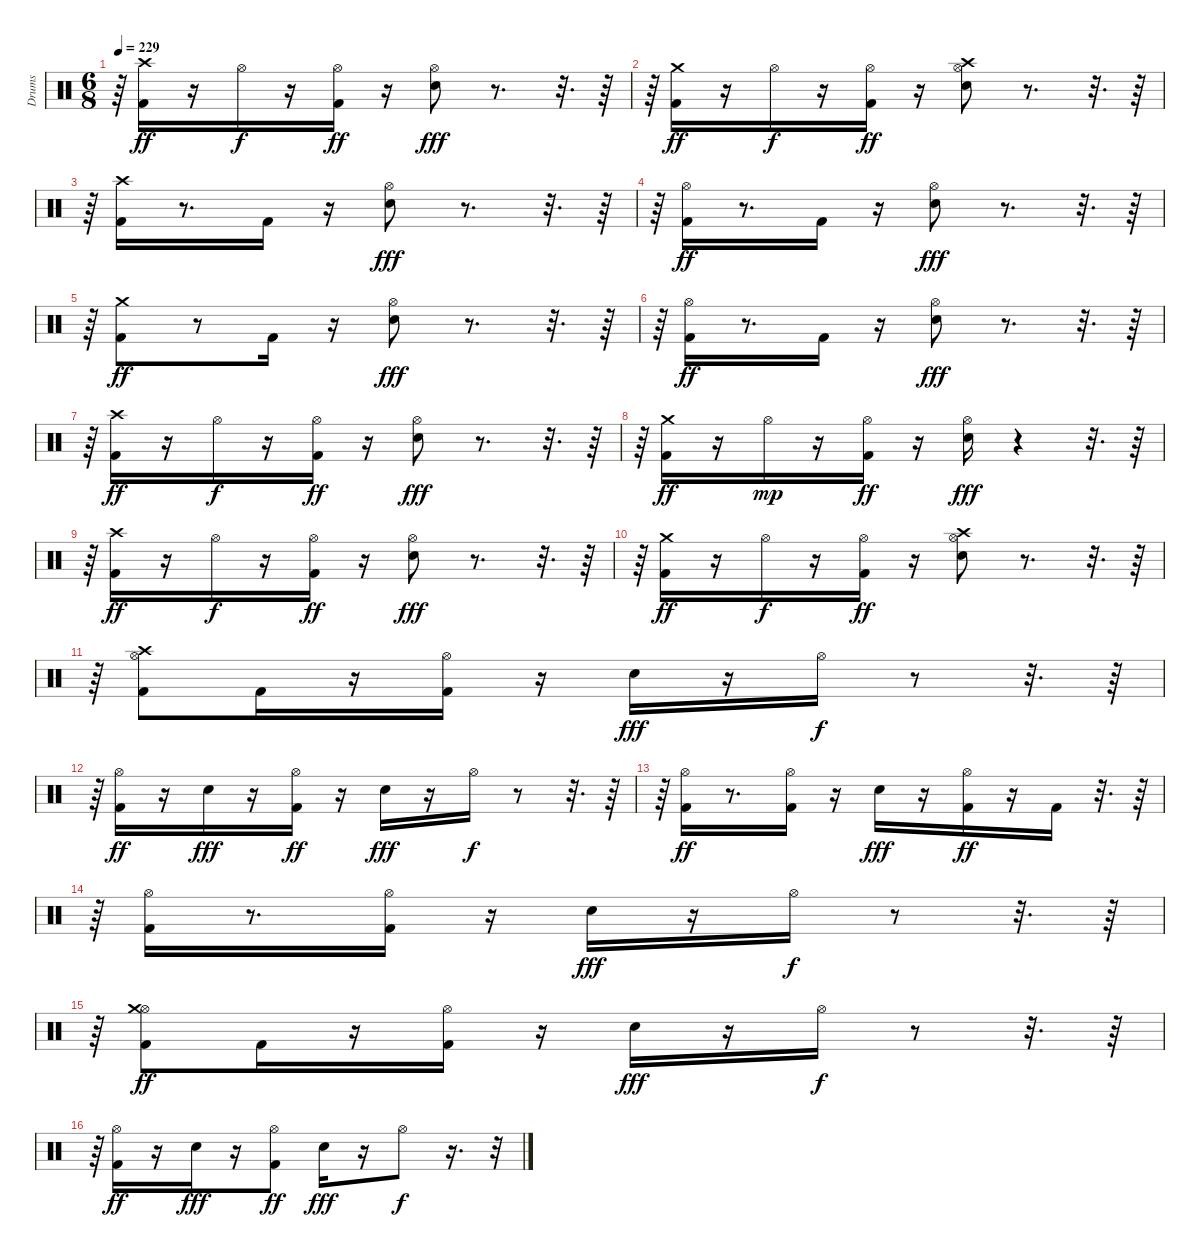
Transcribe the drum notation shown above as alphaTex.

\track ("Drums" "Drums") {instrument percussion}
\staff {score}
\articulation defaults
\ts (6 8)
\tempo 229
\clef neutral
\ks c
r.64{dy fff} ("Kick (hit) 2" "Crash high (hit)").16{dy ff} r.16 "Hi-Hat (open)".16{dy f} r.16 ("Kick (hit) 2" "Hi-Hat (open)").16{dy ff} r.16 ("Snare (hit) 2" "Hi-Hat (open)").8{dy fff} r.8{d} r.32{d} r.64 |
r.64 ("Kick (hit) 2" "Crash medium (hit)").16{dy ff} r.16 "Hi-Hat (open)".16{dy f} r.16 ("Kick (hit) 2" "Hi-Hat (open)").16{dy ff} r.16 ("Snare (hit) 2" "Hi-Hat (open)" "Crash high (hit)").8 r.8{d} r.32{d} r.64 |
r.64 ("Kick (hit) 2" "Crash high (hit)").16 r.8{d} "Kick (hit) 2".16 r.16 ("Snare (hit) 2" "Hi-Hat (open)").8{dy fff} r.8{d} r.32{d} r.64 |
r.64 ("Kick (hit) 2" "Hi-Hat (open)").16{dy ff} r.8{d} "Kick (hit) 2".16 r.16 ("Snare (hit) 2" "Hi-Hat (open)").8{dy fff} r.8{d} r.32{d} r.64 |
r.64 ("Kick (hit) 2" "Crash medium (hit)").8{dy ff} r.8 "Kick (hit) 2".16 r.16 ("Snare (hit) 2" "Hi-Hat (open)").8{dy fff} r.8{d} r.32{d} r.64 |
r.64 ("Kick (hit) 2" "Hi-Hat (open)").16{dy ff} r.8{d} "Kick (hit) 2".16 r.16 ("Snare (hit) 2" "Hi-Hat (open)").8{dy fff} r.8{d} r.32{d} r.64 |
r.64 ("Kick (hit) 2" "Crash high (hit)").16{dy ff} r.16 "Hi-Hat (open)".16{dy f} r.16 ("Kick (hit) 2" "Hi-Hat (open)").16{dy ff} r.16 ("Snare (hit) 2" "Hi-Hat (open)").8{dy fff} r.8{d} r.32{d} r.64 |
r.64 ("Kick (hit) 2" "Crash medium (hit)").16{dy ff} r.16 "Hi-Hat (open)".16{dy mp} r.16 ("Kick (hit) 2" "Hi-Hat (open)").16{dy ff} r.16 ("Snare (hit) 2" "Hi-Hat (open)").16{dy fff} r.4 r.32{d} r.64 |
r.64 ("Kick (hit) 2" "Crash high (hit)").16{dy ff} r.16 "Hi-Hat (open)".16{dy f} r.16 ("Kick (hit) 2" "Hi-Hat (open)").16{dy ff} r.16 ("Snare (hit) 2" "Hi-Hat (open)").8{dy fff} r.8{d} r.32{d} r.64 |
r.64 ("Kick (hit) 2" "Crash medium (hit)").16{dy ff} r.16 "Hi-Hat (open)".16{dy f} r.16 ("Kick (hit) 2" "Hi-Hat (open)").16{dy ff} r.16 ("Snare (hit) 2" "Hi-Hat (open)" "Crash high (hit)").8 r.8{d} r.32{d} r.64 |
r.64 ("Kick (hit) 2" "Hi-Hat (open)" "Crash high (hit)").8 "Kick (hit) 2".16 r.16 ("Kick (hit) 2" "Hi-Hat (open)").16 r.16 "Snare (hit) 2".16{dy fff} r.16 "Hi-Hat (open)".16{dy f} r.8 r.32{d} r.64 |
r.64 ("Kick (hit) 2" "Hi-Hat (open)").16{dy ff} r.16 "Snare (hit) 2".16{dy fff} r.16 ("Kick (hit) 2" "Hi-Hat (open)").16{dy ff} r.16 "Snare (hit) 2".16{dy fff} r.16 "Hi-Hat (open)".16{dy f} r.8 r.32{d} r.64 |
r.64 ("Kick (hit) 2" "Hi-Hat (open)").16{dy ff} r.8{d} ("Kick (hit) 2" "Hi-Hat (open)").16 r.16 "Snare (hit) 2".16{dy fff} r.16 ("Kick (hit) 2" "Hi-Hat (open)").16{dy ff} r.16 "Kick (hit) 2".16 r.32{d} r.64 |
r.64 ("Kick (hit) 2" "Hi-Hat (open)").16 r.8{d} ("Kick (hit) 2" "Hi-Hat (open)").16 r.16 "Snare (hit) 2".16{dy fff} r.16 "Hi-Hat (open)".16{dy f} r.8 r.32{d} r.64 |
r.64 ("Kick (hit) 2" "Hi-Hat (open)" "Crash medium (hit)").8{dy ff} "Kick (hit) 2".16 r.16 ("Kick (hit) 2" "Hi-Hat (open)").16 r.16 "Snare (hit) 2".16{dy fff} r.16 "Hi-Hat (open)".16{dy f} r.8 r.32{d} r.64 |
r.64 ("Kick (hit) 2" "Hi-Hat (open)").16{dy ff} r.16 "Snare (hit) 2".16{dy fff} r.16 ("Kick (hit) 2" "Hi-Hat (open)").8{dy ff} "Snare (hit) 2".16{dy fff} r.16 "Hi-Hat (open)".8{dy f} r.16{d} r.32{tu (5 4)}
